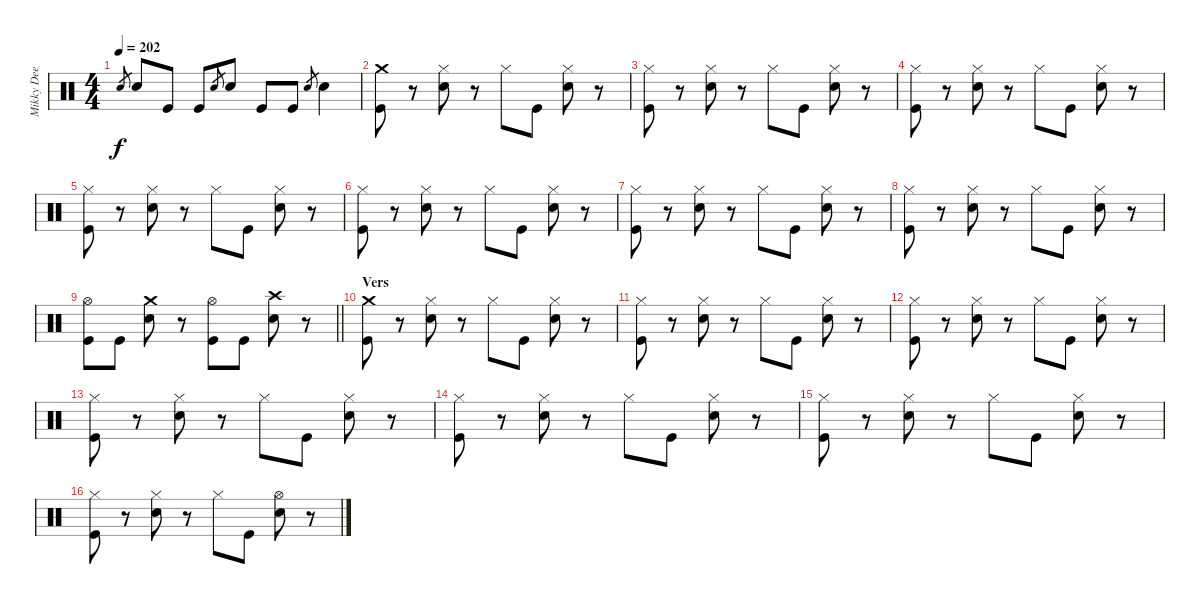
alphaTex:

\track ("Mikky Dee" "Mikky Dee") {instrument percussion}
\staff {score}
\articulation defaults
\ts (4 4)
\tempo 202
\clef neutral
\ks c "Electric Snare (hit)".8{gr dy f} "Electric Snare (hit)".8 "Kick (hit)".8 "Kick (hit)".8 "Electric Snare (hit)".8{gr} "Electric Snare (hit)".8 "Kick (hit)".8 "Kick (hit)".8 "Electric Snare (hit)".8{gr} "Electric Snare (hit)".4
|
("Crash medium (hit)" "Kick (hit)").8 r.8 ("Hi-Hat (closed)" "Electric Snare (hit)").8 r.8 "Hi-Hat (closed)".8 "Kick (hit)".8 ("Hi-Hat (closed)" "Electric Snare (hit)").8 r.8 |
("Hi-Hat (closed)" "Kick (hit)").8 r.8 ("Hi-Hat (closed)" "Electric Snare (hit)").8 r.8 "Hi-Hat (closed)".8 "Kick (hit)".8 ("Hi-Hat (closed)" "Electric Snare (hit)").8 r.8 |
("Hi-Hat (closed)" "Kick (hit)").8 r.8 ("Hi-Hat (closed)" "Electric Snare (hit)").8 r.8 "Hi-Hat (closed)".8 "Kick (hit)".8 ("Hi-Hat (closed)" "Electric Snare (hit)").8 r.8 |
("Hi-Hat (closed)" "Kick (hit)").8 r.8 ("Hi-Hat (closed)" "Electric Snare (hit)").8 r.8 "Hi-Hat (closed)".8 "Kick (hit)".8 ("Hi-Hat (closed)" "Electric Snare (hit)").8 r.8 |
("Hi-Hat (closed)" "Kick (hit)").8 r.8 ("Hi-Hat (closed)" "Electric Snare (hit)").8 r.8 "Hi-Hat (closed)".8 "Kick (hit)".8 ("Hi-Hat (closed)" "Electric Snare (hit)").8 r.8 |
("Hi-Hat (closed)" "Kick (hit)").8 r.8 ("Hi-Hat (closed)" "Electric Snare (hit)").8 r.8 "Hi-Hat (closed)".8 "Kick (hit)".8 ("Hi-Hat (closed)" "Electric Snare (hit)").8 r.8 |
("Hi-Hat (closed)" "Kick (hit)").8 r.8 ("Hi-Hat (closed)" "Electric Snare (hit)").8 r.8 "Hi-Hat (closed)".8 "Kick (hit)".8 ("Hi-Hat (closed)" "Electric Snare (hit)").8 r.8 |
\barLineRight lightlight
("Hi-Hat (open)" "Kick (hit)").8 "Kick (hit)".8 ("Crash medium (hit)" "Electric Snare (hit)").8 r.8 ("Hi-Hat (open)" "Kick (hit)").8 "Kick (hit)".8 ("Crash high (hit)" "Electric Snare (hit)").8 r.8 |
\section ("" "Vers")
("Crash medium (hit)" "Kick (hit)").8 r.8 ("Hi-Hat (closed)" "Electric Snare (hit)").8 r.8 "Hi-Hat (closed)".8 "Kick (hit)".8 ("Hi-Hat (closed)" "Electric Snare (hit)").8 r.8 |
("Hi-Hat (closed)" "Kick (hit)").8 r.8 ("Hi-Hat (closed)" "Electric Snare (hit)").8 r.8 "Hi-Hat (closed)".8 "Kick (hit)".8 ("Hi-Hat (closed)" "Electric Snare (hit)").8 r.8 |
("Hi-Hat (closed)" "Kick (hit)").8 r.8 ("Hi-Hat (closed)" "Electric Snare (hit)").8 r.8 "Hi-Hat (closed)".8 "Kick (hit)".8 ("Hi-Hat (closed)" "Electric Snare (hit)").8 r.8 |
("Hi-Hat (closed)" "Kick (hit)").8 r.8 ("Hi-Hat (closed)" "Electric Snare (hit)").8 r.8 "Hi-Hat (closed)".8 "Kick (hit)".8 ("Hi-Hat (closed)" "Electric Snare (hit)").8 r.8 |
("Hi-Hat (closed)" "Kick (hit)").8 r.8 ("Hi-Hat (closed)" "Electric Snare (hit)").8 r.8 "Hi-Hat (closed)".8 "Kick (hit)".8 ("Hi-Hat (closed)" "Electric Snare (hit)").8 r.8 |
("Hi-Hat (closed)" "Kick (hit)").8 r.8 ("Hi-Hat (closed)" "Electric Snare (hit)").8 r.8 "Hi-Hat (closed)".8 "Kick (hit)".8 ("Hi-Hat (closed)" "Electric Snare (hit)").8 r.8 |
("Hi-Hat (closed)" "Kick (hit)").8 r.8 ("Hi-Hat (closed)" "Electric Snare (hit)").8 r.8 "Hi-Hat (closed)".8 "Kick (hit)".8 ("Hi-Hat (open)" "Electric Snare (hit)").8 r.8
